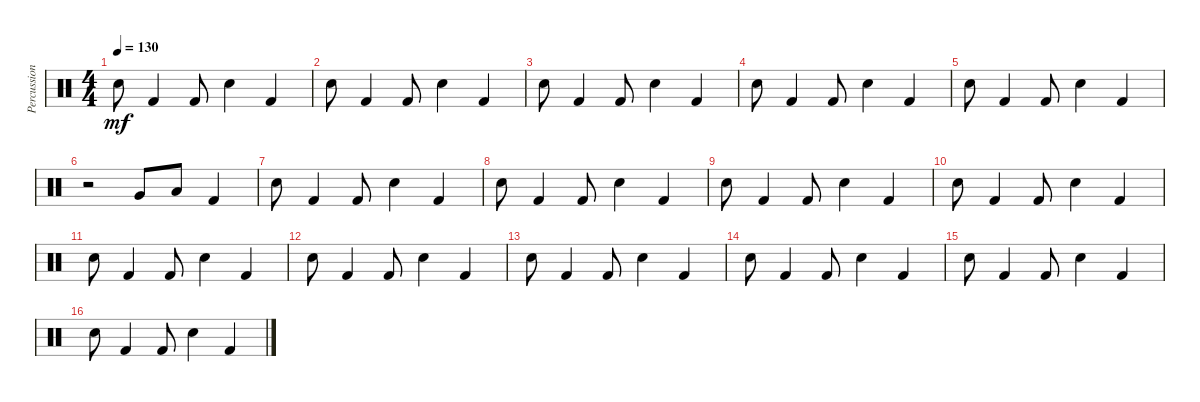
\track ("Percussion" "Percussion") {instrument percussion}
\staff {score}
\articulation defaults
\ts (4 4)
\tempo 130
\clef neutral
\ks c "Electric Snare (hit)".8{dy mf} "Kick (hit) 2".4 "Kick (hit) 2".8 "Electric Snare (hit)".4 "Kick (hit) 2".4
|
"Electric Snare (hit)".8 "Kick (hit) 2".4 "Kick (hit) 2".8 "Electric Snare (hit)".4 "Kick (hit) 2".4 |
"Electric Snare (hit)".8 "Kick (hit) 2".4 "Kick (hit) 2".8 "Electric Snare (hit)".4 "Kick (hit) 2".4 |
"Electric Snare (hit)".8 "Kick (hit) 2".4 "Kick (hit) 2".8 "Electric Snare (hit)".4 "Kick (hit) 2".4 |
"Electric Snare (hit)".8 "Kick (hit) 2".4 "Kick (hit) 2".8 "Electric Snare (hit)".4 "Kick (hit) 2".4 |
r.2 "Very Low Tom (hit)".8 "Low Tom (hit)".8 "Kick (hit) 2".4 |
"Electric Snare (hit)".8 "Kick (hit) 2".4 "Kick (hit) 2".8 "Electric Snare (hit)".4 "Kick (hit) 2".4 |
"Electric Snare (hit)".8 "Kick (hit) 2".4 "Kick (hit) 2".8 "Electric Snare (hit)".4 "Kick (hit) 2".4 |
"Electric Snare (hit)".8 "Kick (hit) 2".4 "Kick (hit) 2".8 "Electric Snare (hit)".4 "Kick (hit) 2".4 |
"Electric Snare (hit)".8 "Kick (hit) 2".4 "Kick (hit) 2".8 "Electric Snare (hit)".4 "Kick (hit) 2".4 |
"Electric Snare (hit)".8 "Kick (hit) 2".4 "Kick (hit) 2".8 "Electric Snare (hit)".4 "Kick (hit) 2".4 |
"Electric Snare (hit)".8 "Kick (hit) 2".4 "Kick (hit) 2".8 "Electric Snare (hit)".4 "Kick (hit) 2".4 |
"Electric Snare (hit)".8 "Kick (hit) 2".4 "Kick (hit) 2".8 "Electric Snare (hit)".4 "Kick (hit) 2".4 |
"Electric Snare (hit)".8 "Kick (hit) 2".4 "Kick (hit) 2".8 "Electric Snare (hit)".4 "Kick (hit) 2".4 |
"Electric Snare (hit)".8 "Kick (hit) 2".4 "Kick (hit) 2".8 "Electric Snare (hit)".4 "Kick (hit) 2".4 |
"Electric Snare (hit)".8 "Kick (hit) 2".4 "Kick (hit) 2".8 "Electric Snare (hit)".4 "Kick (hit) 2".4
